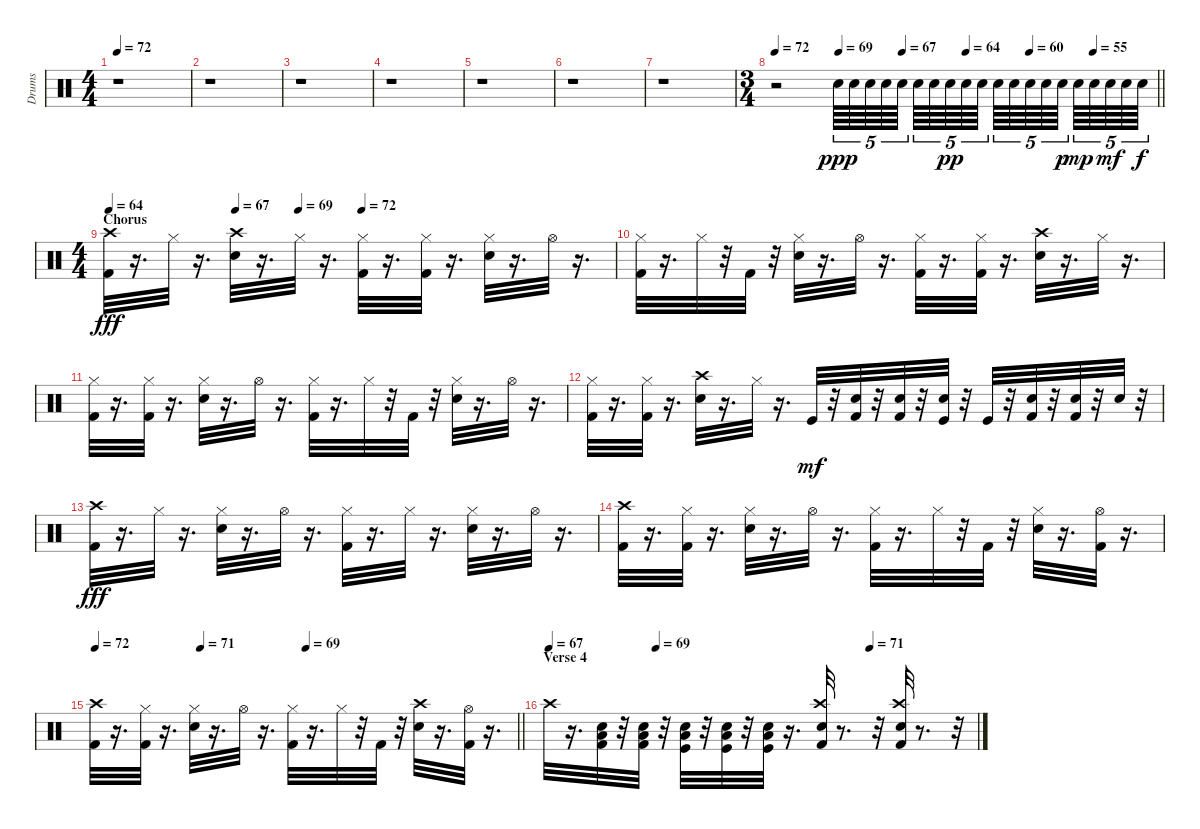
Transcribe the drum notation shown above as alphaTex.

\track ("Drums" "Drums") {instrument percussion}
\staff {score}
\articulation defaults
\ts (4 4)
\tempo 72
\clef neutral
\ks c
r.1{dy fff} |
r.1 |
r.1 |
r.1 |
r.1 |
r.1 |
r.1 |
\ts (3 4)
\tempo 72
\tempo (69 0.16666666666666666)
\tempo (67 0.3333333333333333)
\tempo (64 0.5)
\tempo (60 0.6666666666666666)
\tempo (55 0.8333333333333334)
\barLineRight lightlight
r.2 "Electric Snare (hit)".64{tu (5 4) dy ppp} "Electric Snare (hit)".64{tu (5 4)} "Electric Snare (hit)".64{tu (5 4)} "Electric Snare (hit)".64{tu (5 4)} "Electric Snare (hit)".64{tu (5 4) beam splitsecondary} "Electric Snare (hit)".64{tu (5 4)} "Electric Snare (hit)".64{tu (5 4)} "Electric Snare (hit)".64{tu (5 4) dy pp} "Electric Snare (hit)".64{tu (5 4)} "Electric Snare (hit)".64{tu (5 4) beam splitsecondary} "Electric Snare (hit)".64{tu (5 4)} "Electric Snare (hit)".64{tu (5 4)} "Electric Snare (hit)".64{tu (5 4)} "Electric Snare (hit)".64{tu (5 4)} "Electric Snare (hit)".64{tu (5 4) dy p beam splitsecondary} "Electric Snare (hit)".64{tu (5 4) dy mp} "Electric Snare (hit)".64{tu (5 4)} "Electric Snare (hit)".64{tu (5 4) dy mf} "Electric Snare (hit)".64{tu (5 4)} "Electric Snare (hit)".64{tu (5 4) dy f} |
\ts (4 4)
\section ("" "Chorus")
\tempo 64
\tempo (67 0.25)
\tempo (69 0.375)
\tempo (72 0.5)
("Kick (hit) 2" "Crash high (hit)").32{dy fff} r.16{d} "Hi-Hat (closed)".32 r.16{d} ("Crash high (hit)" "Snare (hit) 2").32 r.16{d} "Hi-Hat (closed)".32 r.16{d} ("Kick (hit) 2" "Hi-Hat (closed)").32 r.16{d} ("Kick (hit) 2" "Hi-Hat (closed)").32 r.16{d} ("Hi-Hat (closed)" "Snare (hit) 2").32 r.16{d} "Hi-Hat (open)".32 r.16{d} |
("Kick (hit) 2" "Hi-Hat (closed)").32 r.16{d} "Hi-Hat (closed)".32 r.32 "Kick (hit) 2".32 r.32 ("Hi-Hat (closed)" "Snare (hit) 2").32 r.16{d} "Hi-Hat (open)".32 r.16{d} ("Kick (hit) 2" "Hi-Hat (closed)").32 r.16{d} ("Kick (hit) 2" "Hi-Hat (closed)").32 r.16{d} ("Crash high (hit)" "Snare (hit) 2").32 r.16{d} "Hi-Hat (closed)".32 r.16{d} |
("Kick (hit) 2" "Hi-Hat (closed)").32 r.16{d} ("Kick (hit) 2" "Hi-Hat (closed)").32 r.16{d} ("Hi-Hat (closed)" "Snare (hit) 2").32 r.16{d} "Hi-Hat (open)".32 r.16{d} ("Kick (hit) 2" "Hi-Hat (closed)").32 r.16{d} "Hi-Hat (closed)".32 r.32 "Kick (hit) 2".32 r.32 ("Hi-Hat (closed)" "Snare (hit) 2").32 r.16{d} "Hi-Hat (open)".32 r.16{d} |
("Kick (hit) 2" "Hi-Hat (closed)").32 r.16{d} ("Kick (hit) 2" "Hi-Hat (closed)").32 r.16{d} ("Crash high (hit)" "Snare (hit) 2").32 r.16{d} "Hi-Hat (closed)".32 r.16{d} "Kick (hit)".32{dy mf} r.32 ("Kick (hit) 2" "Snare (hit) 2").32 r.32 ("Kick (hit) 2" "Snare (hit) 2").32 r.32 ("Snare (hit) 2" "Kick (hit)").32 r.32 "Kick (hit)".32 r.32 ("Kick (hit) 2" "Snare (hit) 2").32 r.32 ("Kick (hit) 2" "Snare (hit) 2").32 r.32 "Snare (hit) 2".32 r.32 |
("Kick (hit) 2" "Crash high (hit)").32{dy fff} r.16{d} "Hi-Hat (closed)".32 r.16{d} ("Hi-Hat (closed)" "Snare (hit) 2").32 r.16{d} "Hi-Hat (open)".32 r.16{d} ("Kick (hit) 2" "Hi-Hat (closed)").32 r.16{d} "Hi-Hat (closed)".32 r.16{d} ("Hi-Hat (closed)" "Snare (hit) 2").32 r.16{d} "Hi-Hat (open)".32 r.16{d} |
("Kick (hit) 2" "Crash high (hit)").32 r.16{d} ("Kick (hit) 2" "Hi-Hat (closed)").32 r.16{d} ("Hi-Hat (closed)" "Snare (hit) 2").32 r.16{d} "Hi-Hat (open)".32 r.16{d} ("Kick (hit) 2" "Hi-Hat (closed)").32 r.16{d} "Hi-Hat (closed)".32 r.32 "Kick (hit) 2".32 r.32 ("Hi-Hat (closed)" "Snare (hit) 2").32 r.16{d} ("Kick (hit) 2" "Hi-Hat (open)").32 r.16{d} |
\tempo 72
\tempo (71 0.25)
\tempo (69 0.5)
\barLineRight lightlight
("Kick (hit) 2" "Crash high (hit)").32 r.16{d} ("Kick (hit) 2" "Hi-Hat (closed)").32 r.16{d} ("Hi-Hat (closed)" "Snare (hit) 2").32 r.16{d} "Hi-Hat (open)".32 r.16{d} ("Kick (hit) 2" "Hi-Hat (closed)").32 r.16{d} "Hi-Hat (closed)".32 r.32 "Kick (hit) 2".32 r.32 ("Crash high (hit)" "Snare (hit) 2").32 r.16{d} ("Kick (hit) 2" "Hi-Hat (open)").32 r.16{d} |
\section ("" "Verse 4")
\tempo 67
\tempo (69 0.25)
\tempo (71 0.75)
"Crash high (hit)".32{volume 16} r.16{d} ("Kick (hit) 2" "Snare (hit) 2" "Low Tom (hit)").32 r.32 ("Kick (hit) 2" "Snare (hit) 2" "Low Tom (hit)").32 r.32 ("Snare (hit) 2" "Kick (hit)" "Low Tom (hit)").32 r.32 ("Snare (hit) 2" "Kick (hit)" "Low Tom (hit)").32 r.32 ("Snare (hit) 2" "Low Floor Tom (hit)" "Kick (hit)").32 r.16{d} ("Kick (hit) 2" "Crash high (hit)" "Snare (hit) 2").32 r.8{d} r.32 ("Kick (hit) 2" "Crash high (hit)" "Snare (hit) 2").32 r.8{d} r.32
